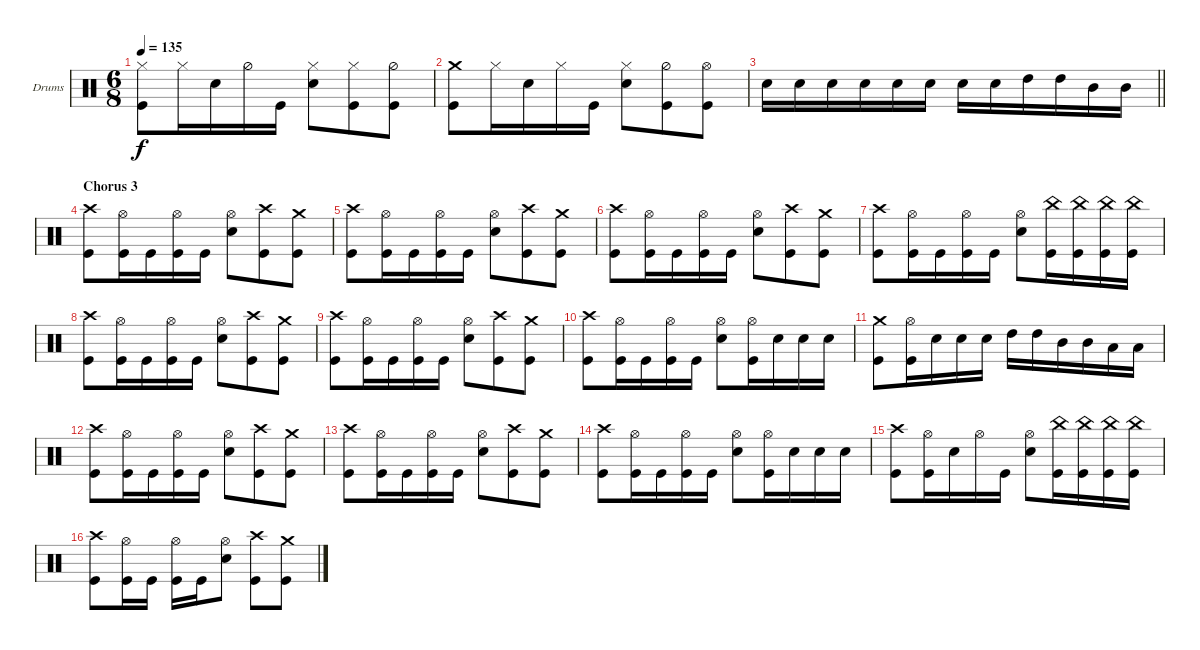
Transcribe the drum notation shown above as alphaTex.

\bracketExtendMode groupsimilarinstruments
\firstSystemTrackNameOrientation horizontal
\otherSystemsTrackNameOrientation horizontal
\track ("drums (Anton Zulganov)" "Drums") {instrument percussion}
\staff {score}
\articulation defaults
\ts (6 8)
\tempo 135
\clef neutral
\ks aminor
("Kick (hit)" "Hi-Hat (closed)").8{dy f} "Hi-Hat (closed)".16 "Snare (hit) 2".16 "Hi-Hat (half)".16 "Kick (hit)".16 ("Snare (hit) 2" "Hi-Hat (closed)").8 ("Kick (hit)" "Hi-Hat (closed)").8 ("Kick (hit)" "Hi-Hat (half)").8 |
("Kick (hit)" "Crash medium (hit)").8 "Hi-Hat (closed)".16 "Snare (hit) 2".16 "Hi-Hat (closed)".16 "Kick (hit)".16 ("Snare (hit) 2" "Hi-Hat (closed)").8 ("Kick (hit)" "Hi-Hat (half)").8 ("Kick (hit)" "Hi-Hat (open)").8 |
\barLineRight lightlight "Snare (hit) 2".16 "Snare (hit) 2".16 "Snare (hit) 2".16 "Snare (hit) 2".16 "Snare (hit) 2".16 "Snare (hit) 2".16 "Snare (hit) 2".16 "Snare (hit) 2".16 "High Tom (hit)".16 "High Tom (hit)".16 "Mid Tom (hit)".16 "Mid Tom (hit)".16
|
\beaming (8 3 3)
\section ("" "Chorus 3")
("Kick (hit)" "Crash high (hit)").8 ("Kick (hit)" "Hi-Hat (open)").16 "Kick (hit)".16 ("Kick (hit)" "Hi-Hat (open)").16 "Kick (hit)".16 ("Snare (hit) 2" "Hi-Hat (open)").8 ("Kick (hit)" "Crash high (hit)").8 ("Kick (hit)" "Crash medium (hit)").8 |
("Kick (hit)" "Crash high (hit)").8 ("Kick (hit)" "Hi-Hat (open)").16 "Kick (hit)".16 ("Kick (hit)" "Hi-Hat (open)").16 "Kick (hit)".16 ("Snare (hit) 2" "Hi-Hat (open)").8 ("Kick (hit)" "Crash high (hit)").8 ("Kick (hit)" "Crash medium (hit)").8 |
("Kick (hit)" "Crash high (hit)").8 ("Kick (hit)" "Hi-Hat (open)").16 "Kick (hit)".16 ("Kick (hit)" "Hi-Hat (open)").16 "Kick (hit)".16 ("Snare (hit) 2" "Hi-Hat (open)").8 ("Kick (hit)" "Crash high (hit)").8 ("Kick (hit)" "Crash medium (hit)").8 |
("Kick (hit)" "Crash high (hit)").8 ("Kick (hit)" "Hi-Hat (open)").16 "Kick (hit)".16 ("Hi-Hat (open)" "Kick (hit)").16 "Kick (hit)".16 ("Snare (hit) 2" "Hi-Hat (open)").8 ("Kick (hit)" "China (hit)").16 ("Kick (hit)" "China (hit)").16 ("Kick (hit)" "China (hit)").16 ("Kick (hit)" "China (hit)").16 |
("Kick (hit)" "Crash high (hit)").8 ("Kick (hit)" "Hi-Hat (open)").16 "Kick (hit)".16 ("Kick (hit)" "Hi-Hat (open)").16 "Kick (hit)".16 ("Snare (hit) 2" "Hi-Hat (open)").8 ("Kick (hit)" "Crash high (hit)").8 ("Kick (hit)" "Crash medium (hit)").8 |
("Kick (hit)" "Crash high (hit)").8 ("Kick (hit)" "Hi-Hat (open)").16 "Kick (hit)".16 ("Kick (hit)" "Hi-Hat (open)").16 "Kick (hit)".16 ("Snare (hit) 2" "Hi-Hat (open)").8 ("Kick (hit)" "Crash high (hit)").8 ("Kick (hit)" "Crash medium (hit)").8 |
("Kick (hit)" "Crash high (hit)").8 ("Kick (hit)" "Hi-Hat (open)").16 "Kick (hit)".16 ("Kick (hit)" "Hi-Hat (open)").16 "Kick (hit)".16 ("Snare (hit) 2" "Hi-Hat (open)").8 ("Kick (hit)" "Hi-Hat (open)").16 "Snare (hit) 2".16 "Snare (hit) 2".16 "Snare (hit) 2".16 |
("Kick (hit)" "Crash medium (hit)").8 ("Kick (hit)" "Hi-Hat (open)").16 "Snare (hit) 2".16 "Snare (hit) 2".16 "Snare (hit) 2".16 "High Tom (hit)".16 "High Tom (hit)".16 "Mid Tom (hit)".16 "Mid Tom (hit)".16 "Low Tom (hit)".16 "Low Tom (hit)".16 |
("Kick (hit)" "Crash high (hit)").8 ("Kick (hit)" "Hi-Hat (open)").16 "Kick (hit)".16 ("Kick (hit)" "Hi-Hat (open)").16 "Kick (hit)".16 ("Snare (hit) 2" "Hi-Hat (open)").8 ("Kick (hit)" "Crash high (hit)").8 ("Kick (hit)" "Crash medium (hit)").8 |
("Kick (hit)" "Crash high (hit)").8 ("Kick (hit)" "Hi-Hat (open)").16 "Kick (hit)".16 ("Kick (hit)" "Hi-Hat (open)").16 "Kick (hit)".16 ("Snare (hit) 2" "Hi-Hat (open)").8 ("Kick (hit)" "Crash high (hit)").8 ("Kick (hit)" "Crash medium (hit)").8 |
("Kick (hit)" "Crash high (hit)").8 ("Kick (hit)" "Hi-Hat (open)").16 "Kick (hit)".16 ("Kick (hit)" "Hi-Hat (open)").16 "Kick (hit)".16 ("Snare (hit) 2" "Hi-Hat (open)").8 ("Kick (hit)" "Hi-Hat (open)").16 "Snare (hit) 2".16 "Snare (hit) 2".16 "Snare (hit) 2".16 |
("Kick (hit)" "Crash high (hit)").8 ("Kick (hit)" "Hi-Hat (open)").16 "Snare (hit) 2".16 "Hi-Hat (open)".16 "Kick (hit)".16 ("Snare (hit) 2" "Hi-Hat (open)").8 ("Kick (hit)" "China (hit)").16 ("Kick (hit)" "China (hit)").16 ("Kick (hit)" "China (hit)").16 ("Kick (hit)" "China (hit)").16 |
\beaming (8 2 2 2 2)
("Kick (hit)" "Crash high (hit)").8 ("Kick (hit)" "Hi-Hat (open)").16 "Kick (hit)".16 ("Kick (hit)" "Hi-Hat (open)").16 "Kick (hit)".16 ("Snare (hit) 2" "Hi-Hat (open)").8 ("Kick (hit)" "Crash high (hit)").8 ("Kick (hit)" "Crash medium (hit)").8
